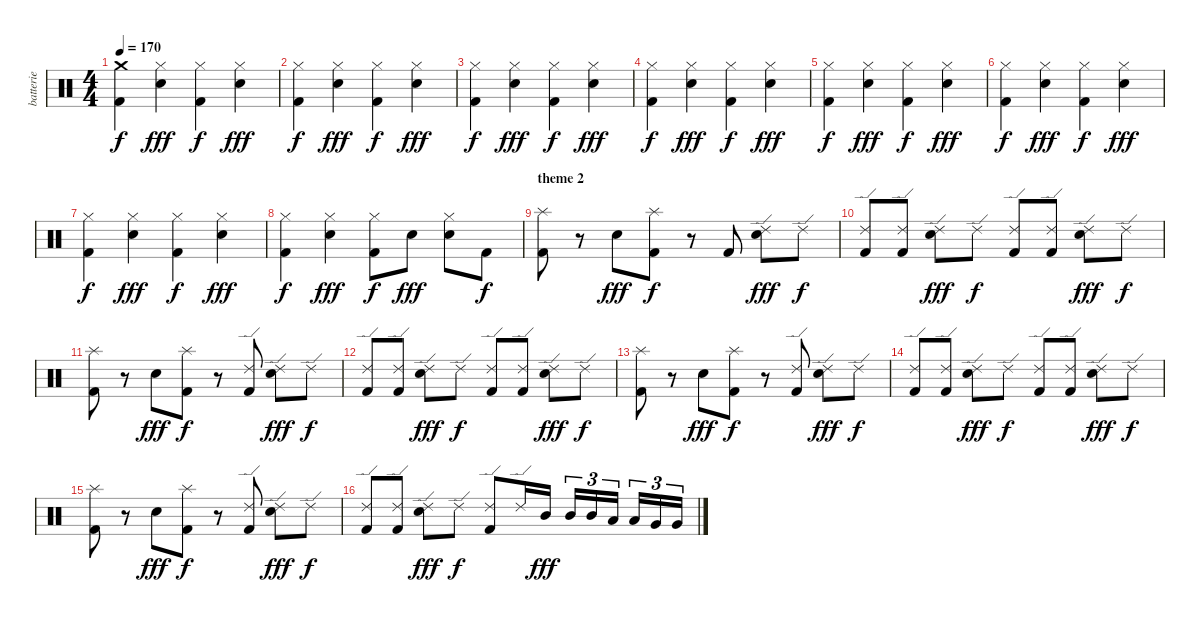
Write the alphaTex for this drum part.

\track ("batterie" "batterie") {instrument percussion}
\staff {score}
\articulation defaults
\ts (4 4)
\tempo 170
\clef neutral
\ks c
("Crash medium (hit)" "Kick (hit) 2").4{dy f} ("Hi-Hat (closed)" "Electric Snare (hit)").4{dy fff} ("Hi-Hat (closed)" "Kick (hit) 2").4{dy f} ("Hi-Hat (closed)" "Electric Snare (hit)").4{dy fff} |
("Hi-Hat (closed)" "Kick (hit) 2").4{dy f} ("Hi-Hat (closed)" "Electric Snare (hit)").4{dy fff} ("Hi-Hat (closed)" "Kick (hit) 2").4{dy f} ("Hi-Hat (closed)" "Electric Snare (hit)").4{dy fff} |
("Hi-Hat (closed)" "Kick (hit) 2").4{dy f} ("Hi-Hat (closed)" "Electric Snare (hit)").4{dy fff} ("Hi-Hat (closed)" "Kick (hit) 2").4{dy f} ("Hi-Hat (closed)" "Electric Snare (hit)").4{dy fff} |
("Hi-Hat (closed)" "Kick (hit) 2").4{dy f} ("Hi-Hat (closed)" "Electric Snare (hit)").4{dy fff} ("Hi-Hat (closed)" "Kick (hit) 2").4{dy f} ("Hi-Hat (closed)" "Electric Snare (hit)").4{dy fff} |
("Hi-Hat (closed)" "Kick (hit) 2").4{dy f} ("Hi-Hat (closed)" "Electric Snare (hit)").4{dy fff} ("Hi-Hat (closed)" "Kick (hit) 2").4{dy f} ("Hi-Hat (closed)" "Electric Snare (hit)").4{dy fff} |
("Hi-Hat (closed)" "Kick (hit) 2").4{dy f} ("Hi-Hat (closed)" "Electric Snare (hit)").4{dy fff} ("Hi-Hat (closed)" "Kick (hit) 2").4{dy f} ("Hi-Hat (closed)" "Electric Snare (hit)").4{dy fff} |
("Hi-Hat (closed)" "Kick (hit) 2").4{dy f} ("Hi-Hat (closed)" "Electric Snare (hit)").4{dy fff} ("Hi-Hat (closed)" "Kick (hit) 2").4{dy f} ("Hi-Hat (closed)" "Electric Snare (hit)").4{dy fff} |
("Hi-Hat (closed)" "Kick (hit) 2").4{dy f} ("Hi-Hat (closed)" "Electric Snare (hit)").4{dy fff} ("Hi-Hat (closed)" "Kick (hit) 2").8{dy f} "Electric Snare (hit)".8{dy fff} ("Hi-Hat (closed)" "Electric Snare (hit)").8 "Kick (hit) 2".8{dy f} |
\section ("" "theme 2")
("Splash (hit)" "Kick (hit) 2").8 r.8 "Electric Snare (hit)".8{dy fff} ("Splash (hit)" "Kick (hit) 2").8{dy f} r.8 "Kick (hit) 2".8 ("Ride (edge) 2" "Electric Snare (hit)").8{dy fff} "Ride (edge) 2".8{dy f} |
("Ride (edge) 2" "Kick (hit) 2").8 ("Ride (edge) 2" "Kick (hit) 2").8 ("Ride (edge) 2" "Electric Snare (hit)").8{dy fff} "Ride (edge) 2".8{dy f} ("Ride (edge) 2" "Kick (hit) 2").8 ("Ride (edge) 2" "Kick (hit) 2").8 ("Ride (edge) 2" "Electric Snare (hit)").8{dy fff} "Ride (edge) 2".8{dy f} |
("Splash (hit)" "Kick (hit) 2").8 r.8 "Electric Snare (hit)".8{dy fff} ("Splash (hit)" "Kick (hit) 2").8{dy f} r.8 ("Ride (edge) 2" "Kick (hit) 2").8 ("Ride (edge) 2" "Electric Snare (hit)").8{dy fff} "Ride (edge) 2".8{dy f} |
("Ride (edge) 2" "Kick (hit) 2").8 ("Ride (edge) 2" "Kick (hit) 2").8 ("Ride (edge) 2" "Electric Snare (hit)").8{dy fff} "Ride (edge) 2".8{dy f} ("Ride (edge) 2" "Kick (hit) 2").8 ("Ride (edge) 2" "Kick (hit) 2").8 ("Ride (edge) 2" "Electric Snare (hit)").8{dy fff} "Ride (edge) 2".8{dy f} |
("Splash (hit)" "Kick (hit) 2").8 r.8 "Electric Snare (hit)".8{dy fff} ("Splash (hit)" "Kick (hit) 2").8{dy f} r.8 ("Ride (edge) 2" "Kick (hit) 2").8 ("Ride (edge) 2" "Electric Snare (hit)").8{dy fff} "Ride (edge) 2".8{dy f} |
("Ride (edge) 2" "Kick (hit) 2").8 ("Ride (edge) 2" "Kick (hit) 2").8 ("Ride (edge) 2" "Electric Snare (hit)").8{dy fff} "Ride (edge) 2".8{dy f} ("Ride (edge) 2" "Kick (hit) 2").8 ("Ride (edge) 2" "Kick (hit) 2").8 ("Ride (edge) 2" "Electric Snare (hit)").8{dy fff} "Ride (edge) 2".8{dy f} |
("Splash (hit)" "Kick (hit) 2").8 r.8 "Electric Snare (hit)".8{dy fff} ("Splash (hit)" "Kick (hit) 2").8{dy f} r.8 ("Ride (edge) 2" "Kick (hit) 2").8 ("Ride (edge) 2" "Electric Snare (hit)").8{dy fff} "Ride (edge) 2".8{dy f} |
("Ride (edge) 2" "Kick (hit) 2").8 ("Ride (edge) 2" "Kick (hit) 2").8 ("Ride (edge) 2" "Electric Snare (hit)").8{dy fff} "Ride (edge) 2".8{dy f} ("Ride (edge) 2" "Kick (hit) 2").8 "Ride (edge) 2".16 "Mid Tom (hit)".16{dy fff} "Mid Tom (hit)".16{tu (3 2)} "Mid Tom (hit)".16{tu (3 2)} "Low Tom (hit)".16{tu (3 2)} "Low Tom (hit)".16{tu (3 2)} "Very Low Tom (hit)".16{tu (3 2)} "Very Low Tom (hit)".16{tu (3 2)}
